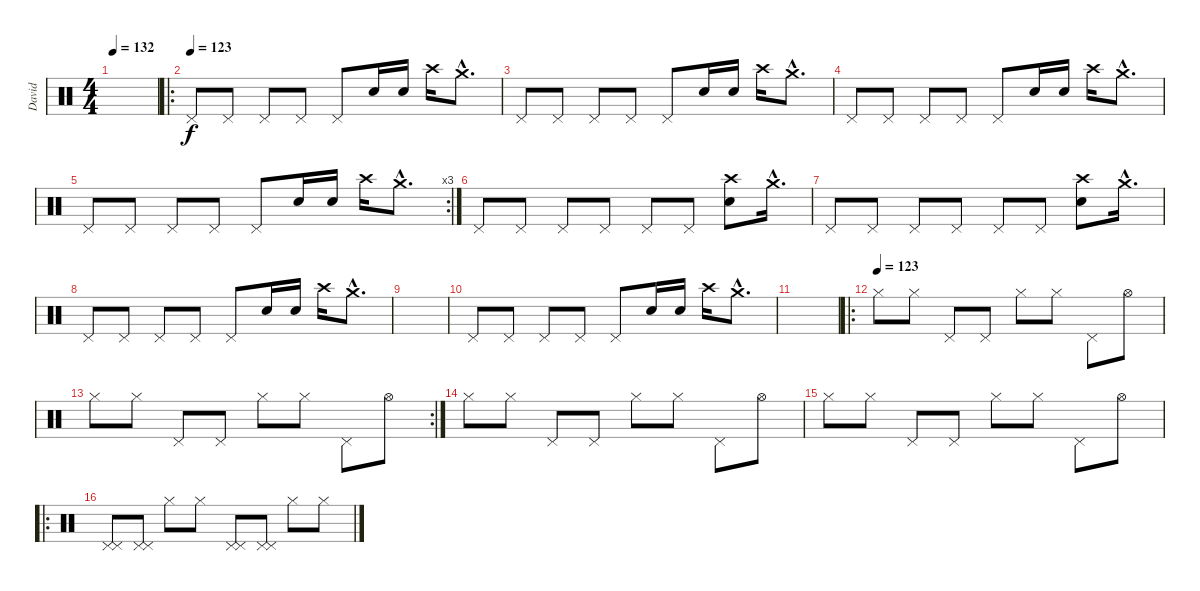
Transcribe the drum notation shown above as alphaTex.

\track ("David" "David") {instrument percussion}
\staff {score}
\articulation defaults
\ts (4 4)
\tempo 132
\clef neutral
\ks c
|
\ro
\tempo (123)
"Pedal Hi-Hat (hit)".8 "Pedal Hi-Hat (hit)".8 "Pedal Hi-Hat (hit)".8 "Pedal Hi-Hat (hit)".8 "Pedal Hi-Hat (hit)".8 "Electric Snare (hit)".16 "Electric Snare (hit)".16 "Crash high (hit)".16 "Crash medium (hit)"{hac}.8{d} |
"Pedal Hi-Hat (hit)".8 "Pedal Hi-Hat (hit)".8 "Pedal Hi-Hat (hit)".8 "Pedal Hi-Hat (hit)".8 "Pedal Hi-Hat (hit)".8 "Electric Snare (hit)".16 "Electric Snare (hit)".16 "Crash high (hit)".16 "Crash medium (hit)"{hac}.8{d} |
"Pedal Hi-Hat (hit)".8 "Pedal Hi-Hat (hit)".8 "Pedal Hi-Hat (hit)".8 "Pedal Hi-Hat (hit)".8 "Pedal Hi-Hat (hit)".8 "Electric Snare (hit)".16 "Electric Snare (hit)".16 "Crash high (hit)".16 "Crash medium (hit)"{hac}.8{d} |
\rc 3 "Pedal Hi-Hat (hit)".8 "Pedal Hi-Hat (hit)".8 "Pedal Hi-Hat (hit)".8 "Pedal Hi-Hat (hit)".8 "Pedal Hi-Hat (hit)".8 "Electric Snare (hit)".16 "Electric Snare (hit)".16 "Crash high (hit)".16 "Crash medium (hit)"{hac}.8{d}
|
"Pedal Hi-Hat (hit)".8 "Pedal Hi-Hat (hit)".8 "Pedal Hi-Hat (hit)".8 "Pedal Hi-Hat (hit)".8 "Pedal Hi-Hat (hit)".8 "Pedal Hi-Hat (hit)".8 ("Crash high (hit)" "Electric Snare (hit)").8 "Crash medium (hit)"{hac}.16{d} |
"Pedal Hi-Hat (hit)".8 "Pedal Hi-Hat (hit)".8 "Pedal Hi-Hat (hit)".8 "Pedal Hi-Hat (hit)".8 "Pedal Hi-Hat (hit)".8 "Pedal Hi-Hat (hit)".8 ("Crash high (hit)" "Electric Snare (hit)").8 "Crash medium (hit)"{hac}.16{d} |
"Pedal Hi-Hat (hit)".8 "Pedal Hi-Hat (hit)".8 "Pedal Hi-Hat (hit)".8 "Pedal Hi-Hat (hit)".8 "Pedal Hi-Hat (hit)".8 "Electric Snare (hit)".16 "Electric Snare (hit)".16 "Crash high (hit)".16 "Crash medium (hit)"{hac}.8{d} |
|
"Pedal Hi-Hat (hit)".8 "Pedal Hi-Hat (hit)".8 "Pedal Hi-Hat (hit)".8 "Pedal Hi-Hat (hit)".8 "Pedal Hi-Hat (hit)".8 "Electric Snare (hit)".16 "Electric Snare (hit)".16 "Crash high (hit)".16 "Crash medium (hit)"{hac}.8{d} |
|
\ro
\tempo (123)
"Hi-Hat (closed)".8 "Hi-Hat (closed)".8 "Pedal Hi-Hat (hit)".8 "Pedal Hi-Hat (hit)".8 "Hi-Hat (closed)".8 "Hi-Hat (closed)".8 "Pedal Hi-Hat (hit)".8 "Hi-Hat (open)".8 |
\rc 2 "Hi-Hat (closed)".8 "Hi-Hat (closed)".8 "Pedal Hi-Hat (hit)".8 "Pedal Hi-Hat (hit)".8 "Hi-Hat (closed)".8 "Hi-Hat (closed)".8 "Pedal Hi-Hat (hit)".8 "Hi-Hat (open)".8
|
"Hi-Hat (closed)".8 "Hi-Hat (closed)".8 "Pedal Hi-Hat (hit)".8 "Pedal Hi-Hat (hit)".8 "Hi-Hat (closed)".8 "Hi-Hat (closed)".8 "Pedal Hi-Hat (hit)".8 "Hi-Hat (open)".8 |
"Hi-Hat (closed)".8 "Hi-Hat (closed)".8 "Pedal Hi-Hat (hit)".8 "Pedal Hi-Hat (hit)".8 "Hi-Hat (closed)".8 "Hi-Hat (closed)".8 "Pedal Hi-Hat (hit)".8 "Hi-Hat (open)".8 |
\ro
("Pedal Hi-Hat (hit)" "Pedal Hi-Hat (hit)").8 ("Pedal Hi-Hat (hit)" "Pedal Hi-Hat (hit)").8 "Hi-Hat (closed)".8 "Hi-Hat (closed)".8 ("Pedal Hi-Hat (hit)" "Pedal Hi-Hat (hit)").8 ("Pedal Hi-Hat (hit)" "Pedal Hi-Hat (hit)").8 "Hi-Hat (closed)".8 "Hi-Hat (closed)".8
